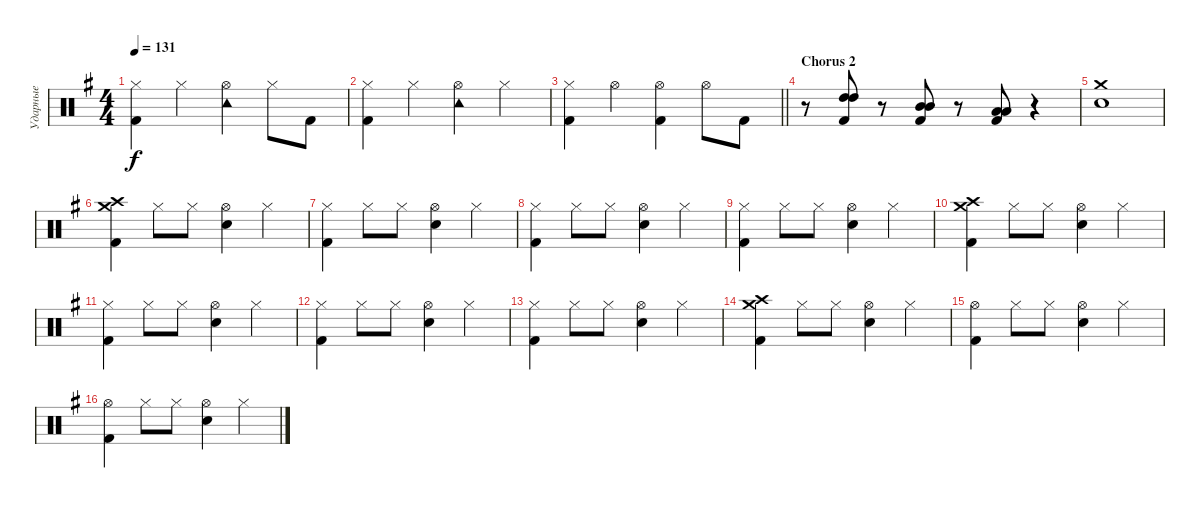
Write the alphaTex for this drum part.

\track ("Ударные" "Ударные") {instrument percussion}
\staff {score}
\articulation defaults
\ts (4 4)
\tempo 131
\clef neutral
\ks eminor
("Hi-Hat (closed)" "Kick (hit) 2").4{dy f} "Hi-Hat (closed)".4 ("Tambourine (hit)" "Hi-Hat (open)").4 "Hi-Hat (closed)".8 "Kick (hit) 2".8 |
("Hi-Hat (closed)" "Kick (hit) 2").4 "Hi-Hat (closed)".4 ("Tambourine (hit)" "Hi-Hat (open)").4 "Hi-Hat (closed)".4 |
\barLineRight lightlight
("Hi-Hat (closed)" "Kick (hit) 2").4 "Hi-Hat (open)".4 ("Hi-Hat (open)" "Kick (hit) 2").4 "Hi-Hat (open)".8 "Kick (hit) 2".8 |
\section ("" "Chorus 2")
r.8 ("High Tom (hit)" "High Tom (hit)" "Kick (hit) 2").8 r.8 ("Mid Tom (hit)" "Mid Tom (hit)" "Kick (hit) 2").8 r.8 ("Low Tom (hit)" "Low Tom (hit)" "Kick (hit) 2").8 r.4 |
("Snare (hit) 2" "Crash medium (hit)").1 |
("Crash medium (hit)" "Crash high (hit)" "Kick (hit) 2").4 "Hi-Hat (closed)".8 "Hi-Hat (closed)".8 ("Hi-Hat (open)" "Snare (hit) 2").4 "Hi-Hat (closed)".4 |
("Hi-Hat (closed)" "Kick (hit) 2").4 "Hi-Hat (closed)".8 "Hi-Hat (closed)".8 ("Hi-Hat (open)" "Snare (hit) 2").4 "Hi-Hat (closed)".4 |
("Hi-Hat (closed)" "Kick (hit) 2").4 "Hi-Hat (closed)".8 "Hi-Hat (closed)".8 ("Hi-Hat (open)" "Snare (hit) 2").4 "Hi-Hat (closed)".4 |
("Hi-Hat (closed)" "Kick (hit) 2").4 "Hi-Hat (closed)".8 "Hi-Hat (closed)".8 ("Hi-Hat (open)" "Snare (hit) 2").4 "Hi-Hat (closed)".4 |
("Crash medium (hit)" "Crash high (hit)" "Kick (hit) 2").4 "Hi-Hat (closed)".8 "Hi-Hat (closed)".8 ("Hi-Hat (open)" "Snare (hit) 2").4 "Hi-Hat (closed)".4 |
("Hi-Hat (closed)" "Kick (hit) 2").4 "Hi-Hat (closed)".8 "Hi-Hat (closed)".8 ("Hi-Hat (open)" "Snare (hit) 2").4 "Hi-Hat (closed)".4 |
("Hi-Hat (closed)" "Kick (hit) 2").4 "Hi-Hat (closed)".8 "Hi-Hat (closed)".8 ("Hi-Hat (open)" "Snare (hit) 2").4 "Hi-Hat (closed)".4 |
("Hi-Hat (closed)" "Kick (hit) 2").4 "Hi-Hat (closed)".8 "Hi-Hat (closed)".8 ("Hi-Hat (open)" "Snare (hit) 2").4 "Hi-Hat (closed)".4 |
("Crash medium (hit)" "Crash high (hit)" "Kick (hit) 2").4 "Hi-Hat (closed)".8 "Hi-Hat (closed)".8 ("Hi-Hat (open)" "Snare (hit) 2").4 "Hi-Hat (closed)".4 |
("Hi-Hat (open)" "Kick (hit) 2").4 "Hi-Hat (closed)".8 "Hi-Hat (closed)".8 ("Hi-Hat (open)" "Snare (hit) 2").4 "Hi-Hat (closed)".4 |
("Hi-Hat (open)" "Kick (hit) 2").4 "Hi-Hat (closed)".8 "Hi-Hat (closed)".8 ("Hi-Hat (open)" "Snare (hit) 2").4 "Hi-Hat (closed)".4
